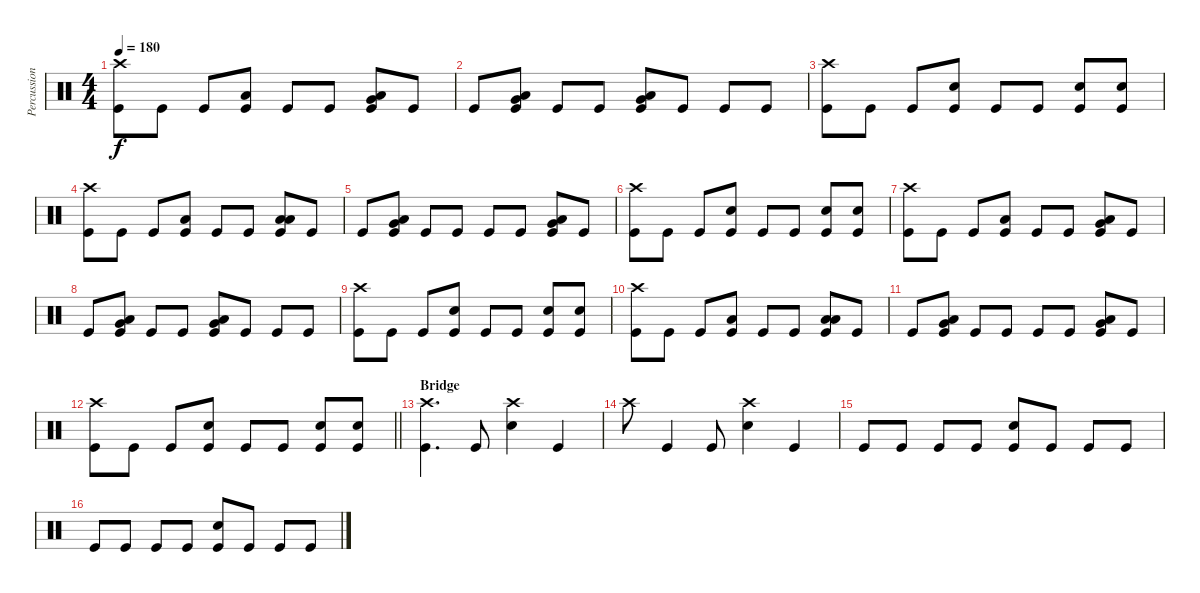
\track ("Percussion" "Percussion") {instrument percussion}
\staff {score}
\articulation defaults
\ts (4 4)
\tempo 180
\clef neutral
\ks c
("Crash high (hit)" "Kick (hit)").8{dy f} "Kick (hit)".8 "Kick (hit)".8 ("Low Tom (hit)" "Kick (hit)").8 "Kick (hit)".8 "Kick (hit)".8 ("Very Low Tom (hit)" "Low Floor Tom (hit)" "Kick (hit)").8 "Kick (hit)".8 |
"Kick (hit)".8 ("Low Floor Tom (hit)" "Very Low Tom (hit)" "Kick (hit)").8 "Kick (hit)".8 "Kick (hit)".8 ("Very Low Tom (hit)" "Low Floor Tom (hit)" "Kick (hit)").8 "Kick (hit)".8 "Kick (hit)".8 "Kick (hit)".8 |
("Crash high (hit)" "Kick (hit)").8 "Kick (hit)".8 "Kick (hit)".8 ("Snare (hit) 2" "Kick (hit)").8 "Kick (hit)".8 "Kick (hit)".8 ("Snare (hit) 2" "Kick (hit)").8 ("Snare (hit) 2" "Kick (hit)").8 |
("Crash high (hit)" "Kick (hit)").8 "Kick (hit)".8 "Kick (hit)".8 ("Low Tom (hit)" "Kick (hit)").8 "Kick (hit)".8 "Kick (hit)".8 ("Low Tom (hit)" "Low Floor Tom (hit)" "Kick (hit)").8 "Kick (hit)".8 |
"Kick (hit)".8 ("Very Low Tom (hit)" "Low Floor Tom (hit)" "Kick (hit)").8 "Kick (hit)".8 "Kick (hit)".8 "Kick (hit)".8 "Kick (hit)".8 ("Low Floor Tom (hit)" "Very Low Tom (hit)" "Kick (hit)").8 "Kick (hit)".8 |
("Crash high (hit)" "Kick (hit)").8 "Kick (hit)".8 "Kick (hit)".8 ("Snare (hit) 2" "Kick (hit)").8 "Kick (hit)".8 "Kick (hit)".8 ("Snare (hit) 2" "Kick (hit)").8 ("Snare (hit) 2" "Kick (hit)").8 |
("Crash high (hit)" "Kick (hit)").8 "Kick (hit)".8 "Kick (hit)".8 ("Low Tom (hit)" "Kick (hit)").8 "Kick (hit)".8 "Kick (hit)".8 ("Very Low Tom (hit)" "Low Floor Tom (hit)" "Kick (hit)").8 "Kick (hit)".8 |
"Kick (hit)".8 ("Low Floor Tom (hit)" "Very Low Tom (hit)" "Kick (hit)").8 "Kick (hit)".8 "Kick (hit)".8 ("Very Low Tom (hit)" "Low Floor Tom (hit)" "Kick (hit)").8 "Kick (hit)".8 "Kick (hit)".8 "Kick (hit)".8 |
("Crash high (hit)" "Kick (hit)").8 "Kick (hit)".8 "Kick (hit)".8 ("Snare (hit) 2" "Kick (hit)").8 "Kick (hit)".8 "Kick (hit)".8 ("Snare (hit) 2" "Kick (hit)").8 ("Snare (hit) 2" "Kick (hit)").8 |
("Crash high (hit)" "Kick (hit)").8 "Kick (hit)".8 "Kick (hit)".8 ("Low Tom (hit)" "Kick (hit)").8 "Kick (hit)".8 "Kick (hit)".8 ("Low Tom (hit)" "Low Floor Tom (hit)" "Kick (hit)").8 "Kick (hit)".8 |
"Kick (hit)".8 ("Very Low Tom (hit)" "Low Floor Tom (hit)" "Kick (hit)").8 "Kick (hit)".8 "Kick (hit)".8 "Kick (hit)".8 "Kick (hit)".8 ("Low Floor Tom (hit)" "Very Low Tom (hit)" "Kick (hit)").8 "Kick (hit)".8 |
\barLineRight lightlight
("Crash high (hit)" "Kick (hit)").8 "Kick (hit)".8 "Kick (hit)".8 ("Snare (hit) 2" "Kick (hit)").8 "Kick (hit)".8 "Kick (hit)".8 ("Snare (hit) 2" "Kick (hit)").8 ("Snare (hit) 2" "Kick (hit)").8 |
\section ("" "Bridge")
("Kick (hit)" "Crash high (hit)").4{d} "Kick (hit)".8 ("Snare (hit) 2" "Crash high (hit)").4 "Kick (hit)".4 |
"Crash high (hit)".8 "Kick (hit)".4 "Kick (hit)".8 ("Snare (hit) 2" "Crash high (hit)").4 "Kick (hit)".4 |
"Kick (hit)".8 "Kick (hit)".8 "Kick (hit)".8 "Kick (hit)".8 ("Snare (hit) 2" "Kick (hit)").8 "Kick (hit)".8 "Kick (hit)".8 "Kick (hit)".8 |
"Kick (hit)".8 "Kick (hit)".8 "Kick (hit)".8 "Kick (hit)".8 ("Snare (hit) 2" "Kick (hit)").8 "Kick (hit)".8 "Kick (hit)".8 "Kick (hit)".8
